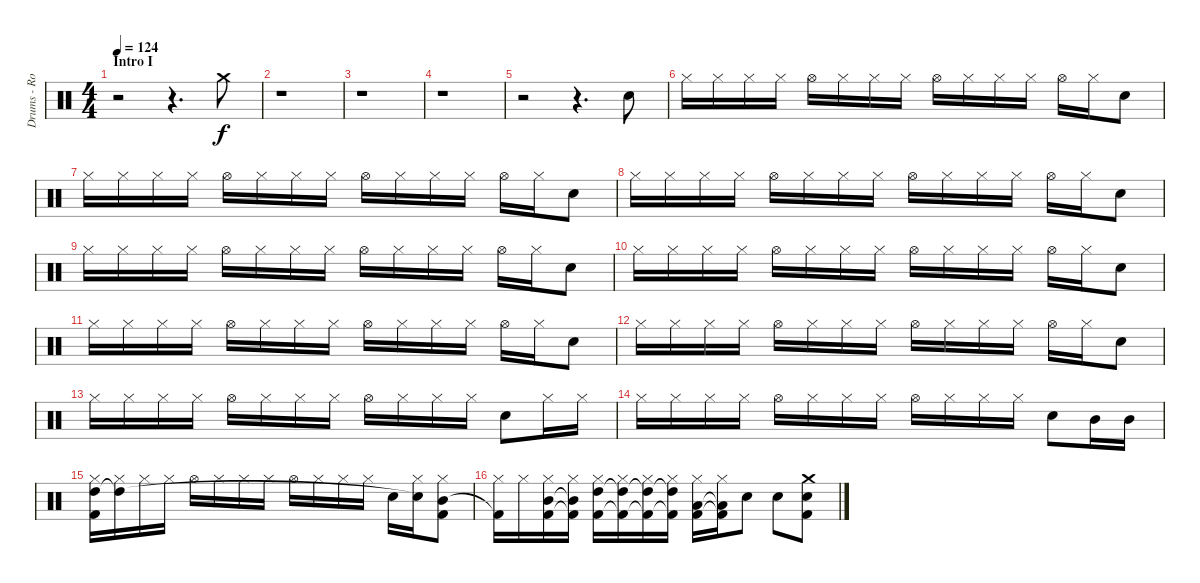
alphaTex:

\track ("Drums - Rockenfield" "Drums - Ro") {instrument percussion}
\staff {score}
\articulation defaults
\ts (4 4)
\section ("" "Intro I")
\tempo 124
\clef neutral
\ks c
r.2{dy f} r.4{d} "Crash medium (hit)".8 |
r.1 |
r.1 |
r.1 |
r.2 r.4{d} "Snare (hit) 2".8 |
"Hi-Hat (closed)".16 "Hi-Hat (closed)".16 "Hi-Hat (closed)".16 "Hi-Hat (closed)".16 "Hi-Hat (open)".16 "Hi-Hat (closed)".16 "Hi-Hat (closed)".16 "Hi-Hat (closed)".16 "Hi-Hat (open)".16 "Hi-Hat (closed)".16 "Hi-Hat (closed)".16 "Hi-Hat (closed)".16 "Hi-Hat (open)".16 "Hi-Hat (closed)".16 "Snare (hit) 2".8 |
"Hi-Hat (closed)".16 "Hi-Hat (closed)".16 "Hi-Hat (closed)".16 "Hi-Hat (closed)".16 "Hi-Hat (open)".16 "Hi-Hat (closed)".16 "Hi-Hat (closed)".16 "Hi-Hat (closed)".16 "Hi-Hat (open)".16 "Hi-Hat (closed)".16 "Hi-Hat (closed)".16 "Hi-Hat (closed)".16 "Hi-Hat (open)".16 "Hi-Hat (closed)".16 "Snare (hit) 2".8 |
"Hi-Hat (closed)".16 "Hi-Hat (closed)".16 "Hi-Hat (closed)".16 "Hi-Hat (closed)".16 "Hi-Hat (open)".16 "Hi-Hat (closed)".16 "Hi-Hat (closed)".16 "Hi-Hat (closed)".16 "Hi-Hat (open)".16 "Hi-Hat (closed)".16 "Hi-Hat (closed)".16 "Hi-Hat (closed)".16 "Hi-Hat (open)".16 "Hi-Hat (closed)".16 "Snare (hit) 2".8 |
"Hi-Hat (closed)".16 "Hi-Hat (closed)".16 "Hi-Hat (closed)".16 "Hi-Hat (closed)".16 "Hi-Hat (open)".16 "Hi-Hat (closed)".16 "Hi-Hat (closed)".16 "Hi-Hat (closed)".16 "Hi-Hat (open)".16 "Hi-Hat (closed)".16 "Hi-Hat (closed)".16 "Hi-Hat (closed)".16 "Hi-Hat (open)".16 "Hi-Hat (closed)".16 "Snare (hit) 2".8 |
"Hi-Hat (closed)".16 "Hi-Hat (closed)".16 "Hi-Hat (closed)".16 "Hi-Hat (closed)".16 "Hi-Hat (open)".16 "Hi-Hat (closed)".16 "Hi-Hat (closed)".16 "Hi-Hat (closed)".16 "Hi-Hat (open)".16 "Hi-Hat (closed)".16 "Hi-Hat (closed)".16 "Hi-Hat (closed)".16 "Hi-Hat (open)".16 "Hi-Hat (closed)".16 "Snare (hit) 2".8 |
"Hi-Hat (closed)".16 "Hi-Hat (closed)".16 "Hi-Hat (closed)".16 "Hi-Hat (closed)".16 "Hi-Hat (open)".16 "Hi-Hat (closed)".16 "Hi-Hat (closed)".16 "Hi-Hat (closed)".16 "Hi-Hat (open)".16 "Hi-Hat (closed)".16 "Hi-Hat (closed)".16 "Hi-Hat (closed)".16 "Hi-Hat (open)".16 "Hi-Hat (closed)".16 "Snare (hit) 2".8 |
"Hi-Hat (closed)".16 "Hi-Hat (closed)".16 "Hi-Hat (closed)".16 "Hi-Hat (closed)".16 "Hi-Hat (open)".16 "Hi-Hat (closed)".16 "Hi-Hat (closed)".16 "Hi-Hat (closed)".16 "Hi-Hat (open)".16 "Hi-Hat (closed)".16 "Hi-Hat (closed)".16 "Hi-Hat (closed)".16 "Hi-Hat (open)".16 "Hi-Hat (closed)".16 "Snare (hit) 2".8 |
"Hi-Hat (closed)".16 "Hi-Hat (closed)".16 "Hi-Hat (closed)".16 "Hi-Hat (closed)".16 "Hi-Hat (open)".16 "Hi-Hat (closed)".16 "Hi-Hat (closed)".16 "Hi-Hat (closed)".16 "Hi-Hat (open)".16 "Hi-Hat (closed)".16 "Hi-Hat (closed)".16 "Hi-Hat (closed)".16 "Snare (hit) 2".8 "Hi-Hat (closed)".16 "Hi-Hat (closed)".16 |
"Hi-Hat (closed)".16 "Hi-Hat (closed)".16 "Hi-Hat (closed)".16 "Hi-Hat (closed)".16 "Hi-Hat (open)".16 "Hi-Hat (closed)".16 "Hi-Hat (closed)".16 "Hi-Hat (closed)".16 "Hi-Hat (open)".16 "Hi-Hat (closed)".16 "Hi-Hat (closed)".16 "Hi-Hat (closed)".16 "Snare (hit) 2".8 "Mid Tom (hit)".16 "Mid Tom (hit)".16 |
("Hi-Hat (closed)" "High Tom (hit)" "Kick (hit) 2").16 ("Hi-Hat (closed)" "High Tom (hit)"{t}).16 "Hi-Hat (closed)".16 "Hi-Hat (closed)".16 "Hi-Hat (open)".16 "Hi-Hat (closed)".16 "Hi-Hat (closed)".16 "Hi-Hat (closed)".16 "Hi-Hat (open)".16 "Hi-Hat (closed)".16 "Hi-Hat (closed)".16 "Hi-Hat (closed)".16 "Snare (hit) 2".16 ("Hi-Hat (closed)" "Snare (hit) 2"{t}).16 ("Hi-Hat (closed)" "Mid Tom (hit)" "Kick (hit) 2").8 |
("Hi-Hat (closed)" "Kick (hit) 2"{t}).16 "Hi-Hat (closed)".16 ("Hi-Hat (closed)" "Mid Tom (hit)" "Kick (hit) 2").16 ("Hi-Hat (closed)" "Mid Tom (hit)"{t} "Kick (hit) 2"{t}).16 ("Hi-Hat (closed)" "High Tom (hit)" "Kick (hit) 2").16 ("Hi-Hat (closed)" "High Tom (hit)"{t} "Kick (hit) 2"{t}).16 ("Hi-Hat (closed)" "High Tom (hit)"{t} "Kick (hit) 2"{t}).16 ("Hi-Hat (closed)" "High Tom (hit)"{t} "Kick (hit) 2"{t}).16 ("Hi-Hat (closed)" "Low Tom (hit)" "Kick (hit) 2").16 ("Hi-Hat (closed)" "Low Tom (hit)"{t} "Kick (hit) 2"{t}).16 "Snare (hit) 2".8 "Snare (hit) 2".8 ("Crash medium (hit)" "Snare (hit) 2" "Kick (hit) 2").8
